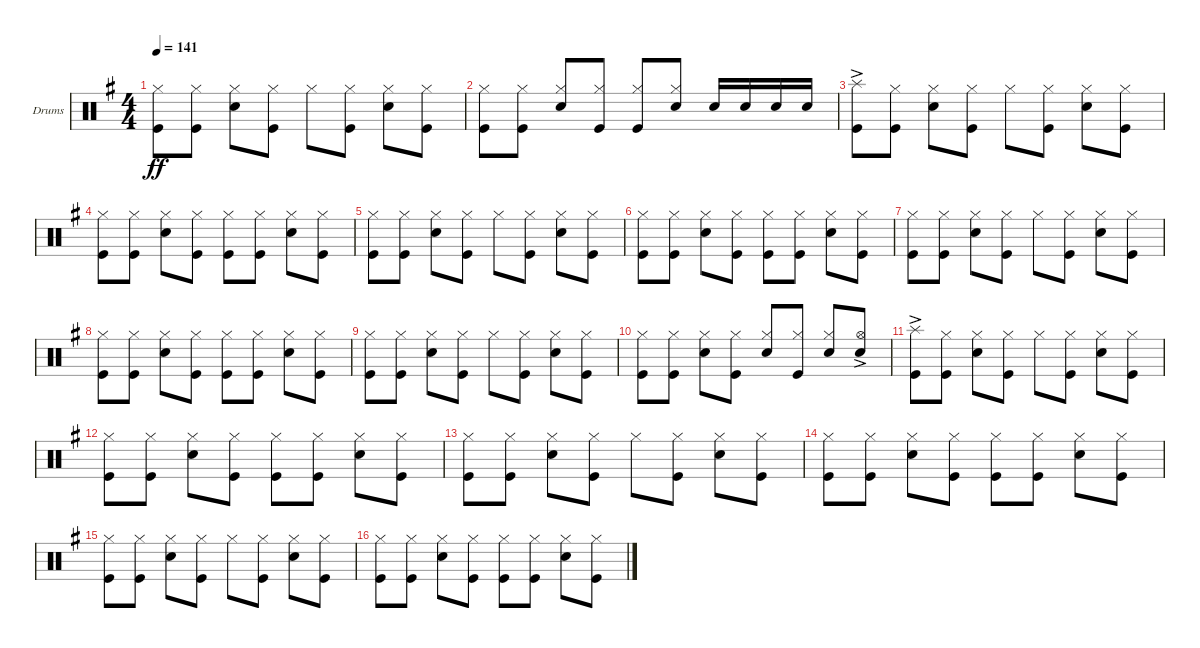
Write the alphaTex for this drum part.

\defaultSystemsLayout 4
\bracketExtendMode groupsimilarinstruments
\firstSystemTrackNameOrientation horizontal
\otherSystemsTrackNameOrientation horizontal
\track ("Drumkit" "Drums") {instrument percussion}
\staff {score}
\articulation defaults
\ts (4 4)
\tempo 141
\clef neutral
\scale
0.333333
\ks g
("Kick (hit)" "Hi-Hat (closed)").8{dy ff} ("Kick (hit)" "Hi-Hat (closed)").8 ("Snare (hit) 2" "Hi-Hat (closed)").8 ("Hi-Hat (closed)" "Kick (hit)").8 "Hi-Hat (closed)".8 ("Kick (hit)" "Hi-Hat (closed)").8 ("Snare (hit) 2" "Hi-Hat (closed)").8 ("Kick (hit)" "Hi-Hat (closed)").8 |
\scale
0.333333 ("Kick (hit)" "Hi-Hat (closed)").8 ("Kick (hit)" "Hi-Hat (closed)").8 ("Snare (hit) 2" "Hi-Hat (closed)").8 ("Kick (hit)" "Hi-Hat (closed)").8 ("Kick (hit)" "Hi-Hat (closed)").8{beam invert} ("Hi-Hat (closed)" "Snare (hit) 2").8 "Snare (hit) 2".16{beam invert} "Snare (hit) 2".16 "Snare (hit) 2".16 "Snare (hit) 2".16 |
\scale
0.333333 ("Kick (hit)" "Splash (hit)"{ac}).8 ("Kick (hit)" "Hi-Hat (closed)").8 ("Snare (hit) 2" "Hi-Hat (closed)").8 ("Kick (hit)" "Hi-Hat (closed)").8 "Hi-Hat (closed)".8 ("Kick (hit)" "Hi-Hat (closed)").8 ("Snare (hit) 2" "Hi-Hat (closed)").8 ("Kick (hit)" "Hi-Hat (closed)").8 |
\scale
0.333333 ("Kick (hit)" "Hi-Hat (closed)").8 ("Kick (hit)" "Hi-Hat (closed)").8 ("Snare (hit) 2" "Hi-Hat (closed)").8 ("Kick (hit)" "Hi-Hat (closed)").8 ("Kick (hit)" "Hi-Hat (closed)").8 ("Kick (hit)" "Hi-Hat (closed)").8 ("Snare (hit) 2" "Hi-Hat (closed)").8 ("Kick (hit)" "Hi-Hat (closed)").8 |
\scale
0.333333 ("Kick (hit)" "Hi-Hat (closed)").8 ("Kick (hit)" "Hi-Hat (closed)").8 ("Snare (hit) 2" "Hi-Hat (closed)").8 ("Hi-Hat (closed)" "Kick (hit)").8 "Hi-Hat (closed)".8 ("Kick (hit)" "Hi-Hat (closed)").8 ("Snare (hit) 2" "Hi-Hat (closed)").8 ("Kick (hit)" "Hi-Hat (closed)").8 |
\scale
0.333333 ("Kick (hit)" "Hi-Hat (closed)").8 ("Kick (hit)" "Hi-Hat (closed)").8 ("Snare (hit) 2" "Hi-Hat (closed)").8 ("Kick (hit)" "Hi-Hat (closed)").8 ("Kick (hit)" "Hi-Hat (closed)").8 ("Kick (hit)" "Hi-Hat (closed)").8 ("Snare (hit) 2" "Hi-Hat (closed)").8 ("Kick (hit)" "Hi-Hat (closed)").8 |
\scale
0.333333 ("Kick (hit)" "Hi-Hat (closed)").8 ("Kick (hit)" "Hi-Hat (closed)").8 ("Snare (hit) 2" "Hi-Hat (closed)").8 ("Hi-Hat (closed)" "Kick (hit)").8 "Hi-Hat (closed)".8 ("Kick (hit)" "Hi-Hat (closed)").8 ("Snare (hit) 2" "Hi-Hat (closed)").8 ("Kick (hit)" "Hi-Hat (closed)").8 |
\scale
0.333333 ("Kick (hit)" "Hi-Hat (closed)").8 ("Kick (hit)" "Hi-Hat (closed)").8 ("Snare (hit) 2" "Hi-Hat (closed)").8 ("Kick (hit)" "Hi-Hat (closed)").8 ("Kick (hit)" "Hi-Hat (closed)").8 ("Kick (hit)" "Hi-Hat (closed)").8 ("Snare (hit) 2" "Hi-Hat (closed)").8 ("Kick (hit)" "Hi-Hat (closed)").8 |
\scale
0.333333 ("Kick (hit)" "Hi-Hat (closed)").8 ("Kick (hit)" "Hi-Hat (closed)").8 ("Snare (hit) 2" "Hi-Hat (closed)").8 ("Hi-Hat (closed)" "Kick (hit)").8 "Hi-Hat (closed)".8 ("Kick (hit)" "Hi-Hat (closed)").8 ("Snare (hit) 2" "Hi-Hat (closed)").8 ("Kick (hit)" "Hi-Hat (closed)").8 |
\scale
0.333333 ("Kick (hit)" "Hi-Hat (closed)").8 ("Kick (hit)" "Hi-Hat (closed)").8 ("Snare (hit) 2" "Hi-Hat (closed)").8 ("Kick (hit)" "Hi-Hat (closed)").8 ("Hi-Hat (closed)" "Snare (hit) 2").8 ("Kick (hit)" "Hi-Hat (closed)").8 ("Snare (hit) 2" "Hi-Hat (closed)").8{beam invert} ("Hi-Hat (open)"{ac} "Snare (hit) 2").8 |
\scale
0.333333 ("Kick (hit)" "Splash (hit)"{ac}).8 ("Kick (hit)" "Hi-Hat (closed)").8 ("Snare (hit) 2" "Hi-Hat (closed)").8 ("Kick (hit)" "Hi-Hat (closed)").8 "Hi-Hat (closed)".8 ("Kick (hit)" "Hi-Hat (closed)").8 ("Snare (hit) 2" "Hi-Hat (closed)").8 ("Kick (hit)" "Hi-Hat (closed)").8 |
\scale
0.333333 ("Kick (hit)" "Hi-Hat (closed)").8 ("Kick (hit)" "Hi-Hat (closed)").8 ("Snare (hit) 2" "Hi-Hat (closed)").8 ("Kick (hit)" "Hi-Hat (closed)").8 ("Kick (hit)" "Hi-Hat (closed)").8 ("Kick (hit)" "Hi-Hat (closed)").8 ("Snare (hit) 2" "Hi-Hat (closed)").8 ("Kick (hit)" "Hi-Hat (closed)").8 |
\scale
0.333333 ("Kick (hit)" "Hi-Hat (closed)").8 ("Kick (hit)" "Hi-Hat (closed)").8 ("Snare (hit) 2" "Hi-Hat (closed)").8 ("Hi-Hat (closed)" "Kick (hit)").8 "Hi-Hat (closed)".8 ("Kick (hit)" "Hi-Hat (closed)").8 ("Snare (hit) 2" "Hi-Hat (closed)").8 ("Kick (hit)" "Hi-Hat (closed)").8 |
\scale
0.333333 ("Kick (hit)" "Hi-Hat (closed)").8 ("Kick (hit)" "Hi-Hat (closed)").8 ("Snare (hit) 2" "Hi-Hat (closed)").8 ("Kick (hit)" "Hi-Hat (closed)").8 ("Kick (hit)" "Hi-Hat (closed)").8 ("Kick (hit)" "Hi-Hat (closed)").8 ("Snare (hit) 2" "Hi-Hat (closed)").8 ("Kick (hit)" "Hi-Hat (closed)").8 |
\scale
0.333333 ("Kick (hit)" "Hi-Hat (closed)").8 ("Kick (hit)" "Hi-Hat (closed)").8 ("Snare (hit) 2" "Hi-Hat (closed)").8 ("Hi-Hat (closed)" "Kick (hit)").8 "Hi-Hat (closed)".8 ("Kick (hit)" "Hi-Hat (closed)").8 ("Snare (hit) 2" "Hi-Hat (closed)").8 ("Kick (hit)" "Hi-Hat (closed)").8 |
\scale
0.333333 ("Kick (hit)" "Hi-Hat (closed)").8 ("Kick (hit)" "Hi-Hat (closed)").8 ("Snare (hit) 2" "Hi-Hat (closed)").8 ("Kick (hit)" "Hi-Hat (closed)").8 ("Kick (hit)" "Hi-Hat (closed)").8 ("Kick (hit)" "Hi-Hat (closed)").8 ("Snare (hit) 2" "Hi-Hat (closed)").8 ("Kick (hit)" "Hi-Hat (closed)").8
